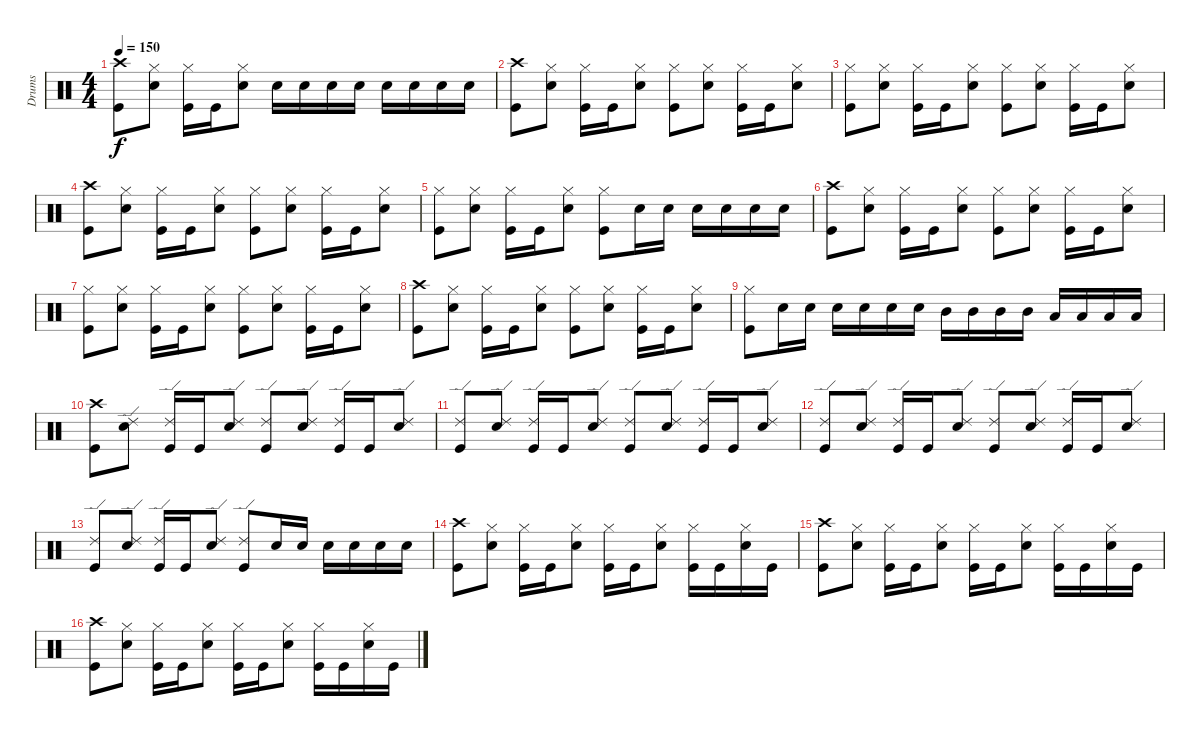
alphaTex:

\track ("Drums" "Drums") {instrument percussion}
\staff {score}
\articulation defaults
\ts (4 4)
\tempo 150
\clef neutral
\ks c
("Crash high (hit)" "Kick (hit)").8{dy f} ("Hi-Hat (closed)" "Electric Snare (hit)").8 ("Hi-Hat (closed)" "Kick (hit)").16 "Kick (hit)".16 ("Hi-Hat (closed)" "Electric Snare (hit)").8 "Electric Snare (hit)".16 "Electric Snare (hit)".16 "Electric Snare (hit)".16 "Electric Snare (hit)".16 "Electric Snare (hit)".16 "Electric Snare (hit)".16 "Electric Snare (hit)".16 "Electric Snare (hit)".16 |
("Crash high (hit)" "Kick (hit)").8 ("Hi-Hat (closed)" "Electric Snare (hit)").8 ("Hi-Hat (closed)" "Kick (hit)").16 "Kick (hit)".16 ("Hi-Hat (closed)" "Electric Snare (hit)").8 ("Hi-Hat (closed)" "Kick (hit)").8 ("Hi-Hat (closed)" "Electric Snare (hit)").8 ("Hi-Hat (closed)" "Kick (hit)").16 "Kick (hit)".16 ("Hi-Hat (closed)" "Electric Snare (hit)").8 |
("Hi-Hat (closed)" "Kick (hit)").8 ("Hi-Hat (closed)" "Electric Snare (hit)").8 ("Hi-Hat (closed)" "Kick (hit)").16 "Kick (hit)".16 ("Hi-Hat (closed)" "Electric Snare (hit)").8 ("Hi-Hat (closed)" "Kick (hit)").8 ("Hi-Hat (closed)" "Electric Snare (hit)").8 ("Hi-Hat (closed)" "Kick (hit)").16 "Kick (hit)".16 ("Hi-Hat (closed)" "Electric Snare (hit)").8 |
("Crash high (hit)" "Kick (hit)").8 ("Hi-Hat (closed)" "Electric Snare (hit)").8 ("Hi-Hat (closed)" "Kick (hit)").16 "Kick (hit)".16 ("Hi-Hat (closed)" "Electric Snare (hit)").8 ("Hi-Hat (closed)" "Kick (hit)").8 ("Hi-Hat (closed)" "Electric Snare (hit)").8 ("Hi-Hat (closed)" "Kick (hit)").16 "Kick (hit)".16 ("Hi-Hat (closed)" "Electric Snare (hit)").8 |
("Hi-Hat (closed)" "Kick (hit)").8 ("Hi-Hat (closed)" "Electric Snare (hit)").8 ("Hi-Hat (closed)" "Kick (hit)").16 "Kick (hit)".16 ("Hi-Hat (closed)" "Electric Snare (hit)").8 ("Hi-Hat (closed)" "Kick (hit)").8 "Electric Snare (hit)".16 "Electric Snare (hit)".16 "Electric Snare (hit)".16 "Electric Snare (hit)".16 "Electric Snare (hit)".16 "Electric Snare (hit)".16 |
("Crash high (hit)" "Kick (hit)").8 ("Hi-Hat (closed)" "Electric Snare (hit)").8 ("Hi-Hat (closed)" "Kick (hit)").16 "Kick (hit)".16 ("Hi-Hat (closed)" "Electric Snare (hit)").8 ("Hi-Hat (closed)" "Kick (hit)").8 ("Hi-Hat (closed)" "Electric Snare (hit)").8 ("Hi-Hat (closed)" "Kick (hit)").16 "Kick (hit)".16 ("Hi-Hat (closed)" "Electric Snare (hit)").8 |
("Hi-Hat (closed)" "Kick (hit)").8 ("Hi-Hat (closed)" "Electric Snare (hit)").8 ("Hi-Hat (closed)" "Kick (hit)").16 "Kick (hit)".16 ("Hi-Hat (closed)" "Electric Snare (hit)").8 ("Hi-Hat (closed)" "Kick (hit)").8 ("Hi-Hat (closed)" "Electric Snare (hit)").8 ("Hi-Hat (closed)" "Kick (hit)").16 "Kick (hit)".16 ("Hi-Hat (closed)" "Electric Snare (hit)").8 |
("Crash high (hit)" "Kick (hit)").8 ("Hi-Hat (closed)" "Electric Snare (hit)").8 ("Hi-Hat (closed)" "Kick (hit)").16 "Kick (hit)".16 ("Hi-Hat (closed)" "Electric Snare (hit)").8 ("Hi-Hat (closed)" "Kick (hit)").8 ("Hi-Hat (closed)" "Electric Snare (hit)").8 ("Hi-Hat (closed)" "Kick (hit)").16 "Kick (hit)".16 ("Hi-Hat (closed)" "Electric Snare (hit)").8 |
("Hi-Hat (closed)" "Kick (hit)").8 "Electric Snare (hit)".16 "Electric Snare (hit)".16 "Electric Snare (hit)".16 "Electric Snare (hit)".16 "Electric Snare (hit)".16 "Electric Snare (hit)".16 "Mid Tom (hit)".16 "Mid Tom (hit)".16 "Mid Tom (hit)".16 "Mid Tom (hit)".16 "Low Tom (hit)".16 "Low Tom (hit)".16 "Low Tom (hit)".16 "Low Tom (hit)".16 |
("Crash high (hit)" "Kick (hit)").8 ("Ride (edge) 2" "Electric Snare (hit)").8 ("Ride (edge) 2" "Kick (hit)").16 "Kick (hit)".16 ("Ride (edge) 2" "Electric Snare (hit)").8 ("Ride (edge) 2" "Kick (hit)").8 ("Ride (edge) 2" "Electric Snare (hit)").8 ("Ride (edge) 2" "Kick (hit)").16 "Kick (hit)".16 ("Ride (edge) 2" "Electric Snare (hit)").8 |
("Ride (edge) 2" "Kick (hit)").8 ("Ride (edge) 2" "Electric Snare (hit)").8 ("Ride (edge) 2" "Kick (hit)").16 "Kick (hit)".16 ("Ride (edge) 2" "Electric Snare (hit)").8 ("Ride (edge) 2" "Kick (hit)").8 ("Ride (edge) 2" "Electric Snare (hit)").8 ("Ride (edge) 2" "Kick (hit)").16 "Kick (hit)".16 ("Ride (edge) 2" "Electric Snare (hit)").8 |
("Ride (edge) 2" "Kick (hit)").8 ("Ride (edge) 2" "Electric Snare (hit)").8 ("Ride (edge) 2" "Kick (hit)").16 "Kick (hit)".16 ("Ride (edge) 2" "Electric Snare (hit)").8 ("Ride (edge) 2" "Kick (hit)").8 ("Ride (edge) 2" "Electric Snare (hit)").8 ("Ride (edge) 2" "Kick (hit)").16 "Kick (hit)".16 ("Ride (edge) 2" "Electric Snare (hit)").8 |
("Ride (edge) 2" "Kick (hit)").8 ("Ride (edge) 2" "Electric Snare (hit)").8 ("Ride (edge) 2" "Kick (hit)").16 "Kick (hit)".16 ("Ride (edge) 2" "Electric Snare (hit)").8 ("Ride (edge) 2" "Kick (hit)").8 "Electric Snare (hit)".16 "Electric Snare (hit)".16 "Electric Snare (hit)".16 "Electric Snare (hit)".16 "Electric Snare (hit)".16 "Electric Snare (hit)".16 |
("Crash high (hit)" "Kick (hit)").8 ("Hi-Hat (closed)" "Electric Snare (hit)").8 ("Hi-Hat (closed)" "Kick (hit)").16 "Kick (hit)".16 ("Hi-Hat (closed)" "Electric Snare (hit)").8 ("Hi-Hat (closed)" "Kick (hit)").16 "Kick (hit)".16 ("Hi-Hat (closed)" "Electric Snare (hit)").8 ("Hi-Hat (closed)" "Kick (hit)").16 "Kick (hit)".16 ("Hi-Hat (closed)" "Electric Snare (hit)").16 "Kick (hit)".16 |
("Crash high (hit)" "Kick (hit)").8 ("Hi-Hat (closed)" "Electric Snare (hit)").8 ("Hi-Hat (closed)" "Kick (hit)").16 "Kick (hit)".16 ("Hi-Hat (closed)" "Electric Snare (hit)").8 ("Hi-Hat (closed)" "Kick (hit)").16 "Kick (hit)".16 ("Hi-Hat (closed)" "Electric Snare (hit)").8 ("Hi-Hat (closed)" "Kick (hit)").16 "Kick (hit)".16 ("Hi-Hat (closed)" "Electric Snare (hit)").16 "Kick (hit)".16 |
("Crash high (hit)" "Kick (hit)").8 ("Hi-Hat (closed)" "Electric Snare (hit)").8 ("Hi-Hat (closed)" "Kick (hit)").16 "Kick (hit)".16 ("Hi-Hat (closed)" "Electric Snare (hit)").8 ("Hi-Hat (closed)" "Kick (hit)").16 "Kick (hit)".16 ("Hi-Hat (closed)" "Electric Snare (hit)").8 ("Hi-Hat (closed)" "Kick (hit)").16 "Kick (hit)".16 ("Hi-Hat (closed)" "Electric Snare (hit)").16 "Kick (hit)".16
